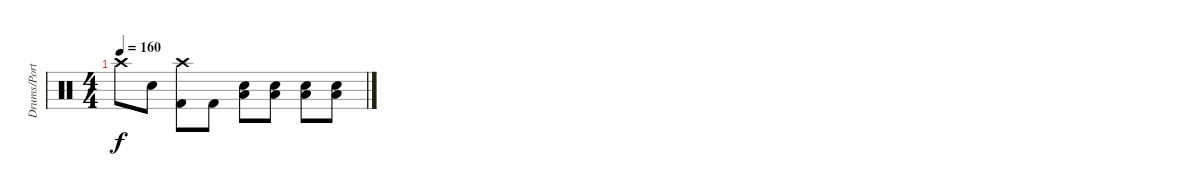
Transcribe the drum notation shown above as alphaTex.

\track ("Drums/Portnoy" "Drums/Port") {instrument percussion}
\staff {score}
\articulation defaults
\ts (4 4)
\tempo 160
\clef neutral
\ks c "Crash high (hit)".8{dy f} "Electric Snare (hit)".8
("Crash high (hit)" "Kick (hit) 2").8 "Kick (hit) 2".8 ("Low Tom (hit)" "Electric Snare (hit)").8 ("Low Tom (hit)" "Electric Snare (hit)").8 ("Low Tom (hit)" "Electric Snare (hit)").8 ("Low Tom (hit)" "Electric Snare (hit)").8
